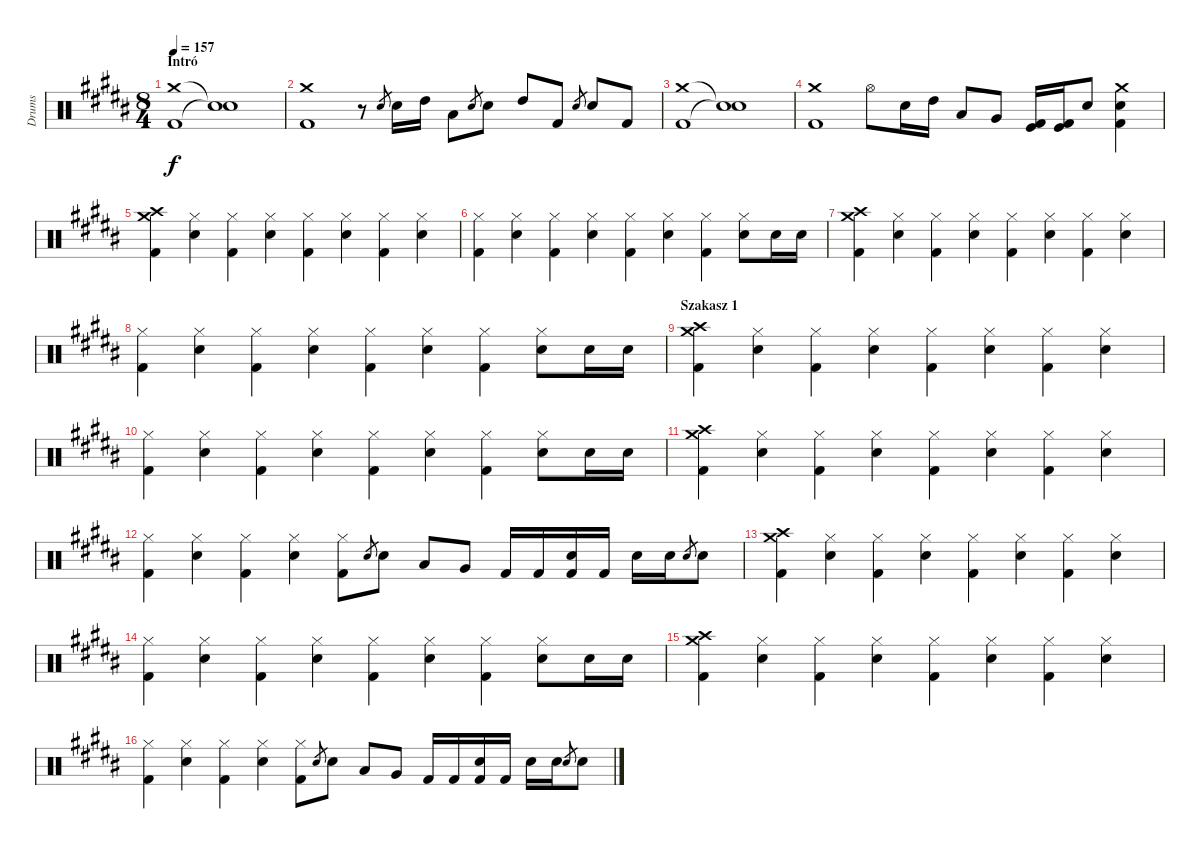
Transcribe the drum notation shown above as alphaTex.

\track ("Drums" "Drums") {instrument percussion}
\staff {score}
\articulation defaults
\ts (8 4)
\section ("" "Intró")
\tempo 157
\clef neutral
\ks g#minor
("Crash medium (hit)" "Kick (hit) 2").1{dy f} ("Snare (hit)"{t} "Snare (hit)"{t}).1 |
("Crash medium (hit)" "Kick (hit) 2").1 r.8 "Snare (hit) 2".8{gr} "Snare (hit) 2".16 "High Tom (hit)".16 "Low Tom (hit)".8 "Snare (hit) 2".8{gr} "Snare (hit) 2".8 "High Tom (hit)".8 "Kick (hit) 2".8 "Snare (hit) 2".8{gr} "Snare (hit) 2".8 "Kick (hit) 2".8 |
("Crash medium (hit)" "Kick (hit) 2").1 ("Snare (hit)"{t} "Snare (hit)"{t}).1 |
("Crash medium (hit)" "Kick (hit) 2").1 "Hi-Hat (open)".8 "Snare (hit) 2".16 "High Tom (hit)".16 "Low Tom (hit)".8 "Very Low Tom (hit)".8 ("Kick (hit) 2" "Kick (hit)").16 ("Kick (hit) 2" "Kick (hit)").16 "Snare (hit) 2".8 ("Crash medium (hit)" "Snare (hit) 2" "Kick (hit) 2").4 |
("Crash medium (hit)" "Crash high (hit)" "Kick (hit) 2").4 ("Hi-Hat (closed)" "Snare (hit) 2").4 ("Hi-Hat (closed)" "Kick (hit) 2").4 ("Hi-Hat (closed)" "Snare (hit) 2").4 ("Hi-Hat (closed)" "Kick (hit) 2").4 ("Hi-Hat (closed)" "Snare (hit) 2").4 ("Hi-Hat (closed)" "Kick (hit) 2").4 ("Hi-Hat (closed)" "Snare (hit) 2").4 |
("Hi-Hat (closed)" "Kick (hit) 2").4 ("Hi-Hat (closed)" "Snare (hit) 2").4 ("Hi-Hat (closed)" "Kick (hit) 2").4 ("Hi-Hat (closed)" "Snare (hit) 2").4 ("Hi-Hat (closed)" "Kick (hit) 2").4 ("Hi-Hat (closed)" "Snare (hit) 2").4 ("Hi-Hat (closed)" "Kick (hit) 2").4 ("Hi-Hat (closed)" "Snare (hit) 2").8 "Snare (hit) 2".16 "Snare (hit) 2".16 |
("Crash medium (hit)" "Crash high (hit)" "Kick (hit) 2").4 ("Hi-Hat (closed)" "Snare (hit) 2").4 ("Hi-Hat (closed)" "Kick (hit) 2").4 ("Hi-Hat (closed)" "Snare (hit) 2").4 ("Hi-Hat (closed)" "Kick (hit) 2").4 ("Hi-Hat (closed)" "Snare (hit) 2").4 ("Hi-Hat (closed)" "Kick (hit) 2").4 ("Hi-Hat (closed)" "Snare (hit) 2").4 |
("Hi-Hat (closed)" "Kick (hit) 2").4 ("Hi-Hat (closed)" "Snare (hit) 2").4 ("Hi-Hat (closed)" "Kick (hit) 2").4 ("Hi-Hat (closed)" "Snare (hit) 2").4 ("Hi-Hat (closed)" "Kick (hit) 2").4 ("Hi-Hat (closed)" "Snare (hit) 2").4 ("Hi-Hat (closed)" "Kick (hit) 2").4 ("Hi-Hat (closed)" "Snare (hit) 2").8 "Snare (hit) 2".16 "Snare (hit) 2".16 |
\section ("" "Szakasz 1")
("Crash medium (hit)" "Crash high (hit)" "Kick (hit) 2").4 ("Hi-Hat (closed)" "Snare (hit) 2").4 ("Hi-Hat (closed)" "Kick (hit) 2").4 ("Hi-Hat (closed)" "Snare (hit) 2").4 ("Hi-Hat (closed)" "Kick (hit) 2").4 ("Hi-Hat (closed)" "Snare (hit) 2").4 ("Hi-Hat (closed)" "Kick (hit) 2").4 ("Hi-Hat (closed)" "Snare (hit) 2").4 |
("Hi-Hat (closed)" "Kick (hit) 2").4 ("Hi-Hat (closed)" "Snare (hit) 2").4 ("Hi-Hat (closed)" "Kick (hit) 2").4 ("Hi-Hat (closed)" "Snare (hit) 2").4 ("Hi-Hat (closed)" "Kick (hit) 2").4 ("Hi-Hat (closed)" "Snare (hit) 2").4 ("Hi-Hat (closed)" "Kick (hit) 2").4 ("Hi-Hat (closed)" "Snare (hit) 2").8 "Snare (hit) 2".16 "Snare (hit) 2".16 |
("Crash medium (hit)" "Crash high (hit)" "Kick (hit) 2").4 ("Hi-Hat (closed)" "Snare (hit) 2").4 ("Hi-Hat (closed)" "Kick (hit) 2").4 ("Hi-Hat (closed)" "Snare (hit) 2").4 ("Hi-Hat (closed)" "Kick (hit) 2").4 ("Hi-Hat (closed)" "Snare (hit) 2").4 ("Hi-Hat (closed)" "Kick (hit) 2").4 ("Hi-Hat (closed)" "Snare (hit) 2").4 |
("Hi-Hat (closed)" "Kick (hit) 2").4 ("Hi-Hat (closed)" "Snare (hit) 2").4 ("Hi-Hat (closed)" "Kick (hit) 2").4 ("Hi-Hat (closed)" "Snare (hit) 2").4 ("Hi-Hat (closed)" "Kick (hit) 2").8 "Snare (hit) 2".8{gr} "Snare (hit) 2".8 "Low Tom (hit)".8 "Very Low Tom (hit)".8 "Kick (hit) 2".16 "Kick (hit) 2".16 ("Snare (hit) 2" "Kick (hit) 2").16 "Kick (hit) 2".16 "Snare (hit) 2".16 "Snare (hit) 2".16 "Snare (hit) 2".8{gr} "Snare (hit) 2".8 |
("Crash medium (hit)" "Crash high (hit)" "Kick (hit) 2").4 ("Hi-Hat (closed)" "Snare (hit) 2").4 ("Hi-Hat (closed)" "Kick (hit) 2").4 ("Hi-Hat (closed)" "Snare (hit) 2").4 ("Hi-Hat (closed)" "Kick (hit) 2").4 ("Hi-Hat (closed)" "Snare (hit) 2").4 ("Hi-Hat (closed)" "Kick (hit) 2").4 ("Hi-Hat (closed)" "Snare (hit) 2").4 |
("Hi-Hat (closed)" "Kick (hit) 2").4 ("Hi-Hat (closed)" "Snare (hit) 2").4 ("Hi-Hat (closed)" "Kick (hit) 2").4 ("Hi-Hat (closed)" "Snare (hit) 2").4 ("Hi-Hat (closed)" "Kick (hit) 2").4 ("Hi-Hat (closed)" "Snare (hit) 2").4 ("Hi-Hat (closed)" "Kick (hit) 2").4 ("Hi-Hat (closed)" "Snare (hit) 2").8 "Snare (hit) 2".16 "Snare (hit) 2".16 |
("Crash medium (hit)" "Crash high (hit)" "Kick (hit) 2").4 ("Hi-Hat (closed)" "Snare (hit) 2").4 ("Hi-Hat (closed)" "Kick (hit) 2").4 ("Hi-Hat (closed)" "Snare (hit) 2").4 ("Hi-Hat (closed)" "Kick (hit) 2").4 ("Hi-Hat (closed)" "Snare (hit) 2").4 ("Hi-Hat (closed)" "Kick (hit) 2").4 ("Hi-Hat (closed)" "Snare (hit) 2").4 |
("Hi-Hat (closed)" "Kick (hit) 2").4 ("Hi-Hat (closed)" "Snare (hit) 2").4 ("Hi-Hat (closed)" "Kick (hit) 2").4 ("Hi-Hat (closed)" "Snare (hit) 2").4 ("Hi-Hat (closed)" "Kick (hit) 2").8 "Snare (hit) 2".8{gr} "Snare (hit) 2".8 "Low Tom (hit)".8 "Very Low Tom (hit)".8 "Kick (hit) 2".16 "Kick (hit) 2".16 ("Snare (hit) 2" "Kick (hit) 2").16 "Kick (hit) 2".16 "Snare (hit) 2".16 "Snare (hit) 2".16 "Snare (hit) 2".8{gr} "Snare (hit) 2".8
